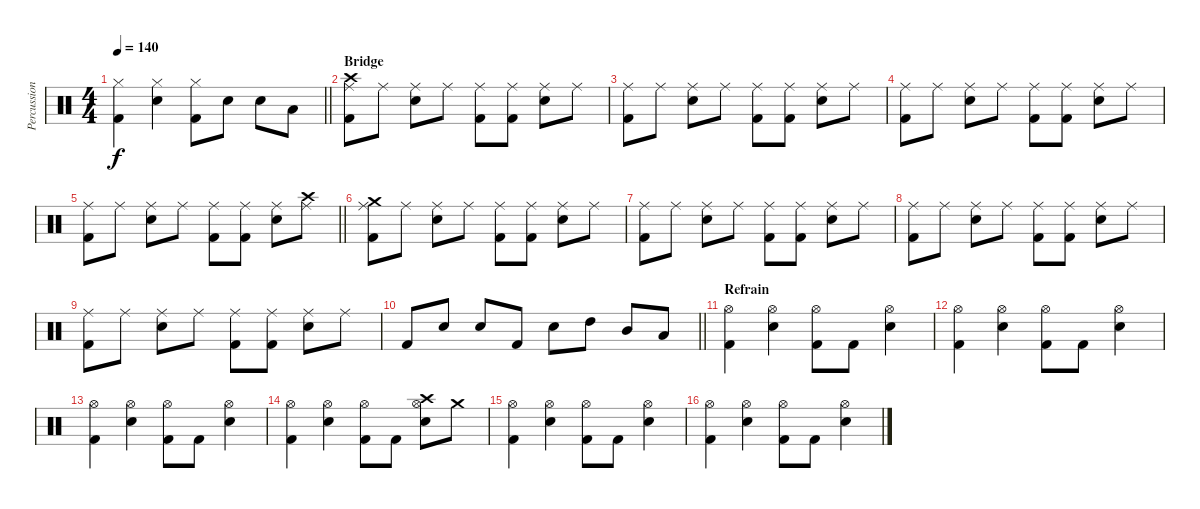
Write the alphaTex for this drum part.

\track ("Percussion" "Percussion") {instrument percussion}
\staff {score}
\articulation defaults
\ts (4 4)
\tempo 140
\clef neutral
\barLineRight lightlight
\ks c
("Kick (hit) 2" "Hi-Hat (closed)").4{dy f} ("Snare (hit) 2" "Hi-Hat (closed)").4 ("Kick (hit) 2" "Hi-Hat (closed)").8 "Snare (hit) 2".8 "Snare (hit) 2".8 "Low Tom (hit)".8 |
\section ("" "Bridge")
("Crash high (hit)" "Kick (hit) 2" "Ride (middle)").8 "Ride (middle)".8 ("Snare (hit) 2" "Ride (middle)").8 "Ride (middle)".8 ("Kick (hit) 2" "Ride (middle)").8 ("Kick (hit) 2" "Ride (middle)").8 ("Snare (hit) 2" "Ride (middle)").8 "Ride (middle)".8 |
("Kick (hit) 2" "Ride (middle)").8 "Ride (middle)".8 ("Snare (hit) 2" "Ride (middle)").8 "Ride (middle)".8 ("Kick (hit) 2" "Ride (middle)").8 ("Kick (hit) 2" "Ride (middle)").8 ("Snare (hit) 2" "Ride (middle)").8 "Ride (middle)".8 |
("Kick (hit) 2" "Ride (middle)").8 "Ride (middle)".8 ("Snare (hit) 2" "Ride (middle)").8 "Ride (middle)".8 ("Kick (hit) 2" "Ride (middle)").8 ("Kick (hit) 2" "Ride (middle)").8 ("Snare (hit) 2" "Ride (middle)").8 "Ride (middle)".8 |
\barLineRight lightlight
("Kick (hit) 2" "Ride (middle)").8 "Ride (middle)".8 ("Snare (hit) 2" "Ride (middle)").8 "Ride (middle)".8 ("Kick (hit) 2" "Ride (middle)").8 ("Kick (hit) 2" "Ride (middle)").8 ("Snare (hit) 2" "Ride (middle)").8 ("Crash high (hit)" "Ride (middle)").8 |
("Crash medium (hit)" "Kick (hit) 2" "Ride (middle)").8 "Ride (middle)".8 ("Snare (hit) 2" "Ride (middle)").8 "Ride (middle)".8 ("Kick (hit) 2" "Ride (middle)").8 ("Kick (hit) 2" "Ride (middle)").8 ("Snare (hit) 2" "Ride (middle)").8 "Ride (middle)".8 |
("Kick (hit) 2" "Ride (middle)").8 "Ride (middle)".8 ("Snare (hit) 2" "Ride (middle)").8 "Ride (middle)".8 ("Kick (hit) 2" "Ride (middle)").8 ("Kick (hit) 2" "Ride (middle)").8 ("Snare (hit) 2" "Ride (middle)").8 "Ride (middle)".8 |
("Kick (hit) 2" "Ride (middle)").8 "Ride (middle)".8 ("Snare (hit) 2" "Ride (middle)").8 "Ride (middle)".8 ("Kick (hit) 2" "Ride (middle)").8 ("Kick (hit) 2" "Ride (middle)").8 ("Snare (hit) 2" "Ride (middle)").8 "Ride (middle)".8 |
("Kick (hit) 2" "Ride (middle)").8 "Ride (middle)".8 ("Snare (hit) 2" "Ride (middle)").8 "Ride (middle)".8 ("Kick (hit) 2" "Ride (middle)").8 ("Kick (hit) 2" "Ride (middle)").8 ("Snare (hit) 2" "Ride (middle)").8 "Ride (middle)".8 |
\barLineRight lightlight "Kick (hit) 2".8 "Snare (hit) 2".8 "Snare (hit) 2".8 "Kick (hit) 2".8 "Snare (hit) 2".8 "High Tom (hit)".8 "Mid Tom (hit)".8 "Low Tom (hit)".8
|
\section ("" "Refrain")
("Kick (hit) 2" "Hi-Hat (open)").4 ("Snare (hit) 2" "Hi-Hat (open)").4 ("Kick (hit) 2" "Hi-Hat (open)").8 "Kick (hit) 2".8 ("Snare (hit) 2" "Hi-Hat (open)").4 |
("Kick (hit) 2" "Hi-Hat (open)").4 ("Snare (hit) 2" "Hi-Hat (open)").4 ("Kick (hit) 2" "Hi-Hat (open)").8 "Kick (hit) 2".8 ("Snare (hit) 2" "Hi-Hat (open)").4 |
("Kick (hit) 2" "Hi-Hat (open)").4 ("Snare (hit) 2" "Hi-Hat (open)").4 ("Kick (hit) 2" "Hi-Hat (open)").8 "Kick (hit) 2".8 ("Snare (hit) 2" "Hi-Hat (open)").4 |
("Kick (hit) 2" "Hi-Hat (open)").4 ("Snare (hit) 2" "Hi-Hat (open)").4 ("Kick (hit) 2" "Hi-Hat (open)").8 "Kick (hit) 2".8 ("Crash high (hit)" "Snare (hit) 2" "Hi-Hat (open)").8 "Crash medium (hit)".8 |
("Kick (hit) 2" "Hi-Hat (open)").4 ("Snare (hit) 2" "Hi-Hat (open)").4 ("Kick (hit) 2" "Hi-Hat (open)").8 "Kick (hit) 2".8 ("Snare (hit) 2" "Hi-Hat (open)").4 |
("Kick (hit) 2" "Hi-Hat (open)").4 ("Snare (hit) 2" "Hi-Hat (open)").4 ("Kick (hit) 2" "Hi-Hat (open)").8 "Kick (hit) 2".8 ("Snare (hit) 2" "Hi-Hat (open)").4
